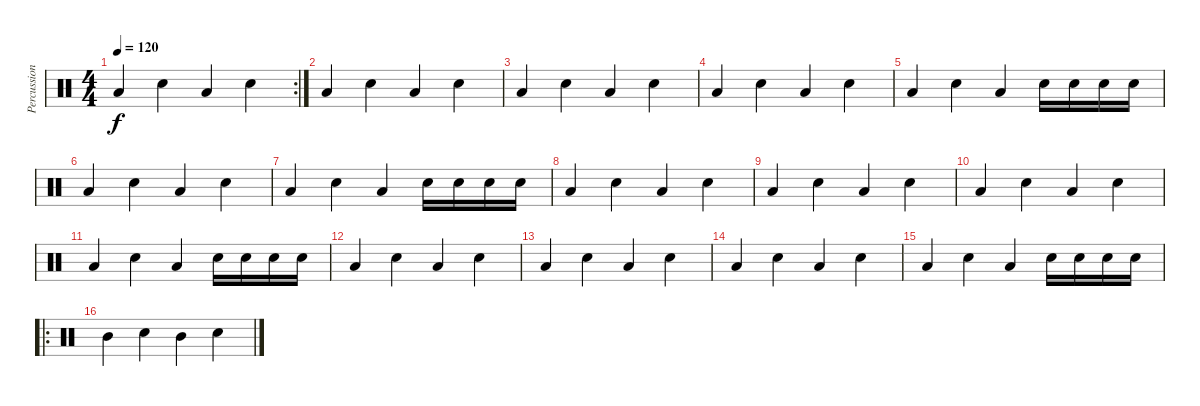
\track ("Percussion" "Percussion") {instrument percussion}
\staff {score}
\articulation defaults
\rc 2
\ts (4 4)
\tempo 120
\clef neutral
\ks c "Low Floor Tom (hit)".4{dy f} "Electric Snare (hit)".4 "Low Floor Tom (hit)".4 "Electric Snare (hit)".4
|
"Low Floor Tom (hit)".4 "Electric Snare (hit)".4 "Low Floor Tom (hit)".4 "Electric Snare (hit)".4 |
"Low Floor Tom (hit)".4 "Electric Snare (hit)".4 "Low Floor Tom (hit)".4 "Electric Snare (hit)".4 |
"Low Floor Tom (hit)".4 "Electric Snare (hit)".4 "Low Floor Tom (hit)".4 "Electric Snare (hit)".4 |
"Low Floor Tom (hit)".4 "Electric Snare (hit)".4 "Low Floor Tom (hit)".4 "Electric Snare (hit)".16 "Electric Snare (hit)".16 "Electric Snare (hit)".16 "Electric Snare (hit)".16 |
"Low Floor Tom (hit)".4 "Electric Snare (hit)".4 "Low Floor Tom (hit)".4 "Electric Snare (hit)".4 |
"Low Floor Tom (hit)".4 "Electric Snare (hit)".4 "Low Floor Tom (hit)".4 "Electric Snare (hit)".16 "Electric Snare (hit)".16 "Electric Snare (hit)".16 "Electric Snare (hit)".16 |
"Low Floor Tom (hit)".4 "Electric Snare (hit)".4 "Low Floor Tom (hit)".4 "Electric Snare (hit)".4 |
"Low Floor Tom (hit)".4 "Electric Snare (hit)".4 "Low Floor Tom (hit)".4 "Electric Snare (hit)".4 |
"Low Floor Tom (hit)".4 "Electric Snare (hit)".4 "Low Floor Tom (hit)".4 "Electric Snare (hit)".4 |
"Low Floor Tom (hit)".4 "Electric Snare (hit)".4 "Low Floor Tom (hit)".4 "Electric Snare (hit)".16 "Electric Snare (hit)".16 "Electric Snare (hit)".16 "Electric Snare (hit)".16 |
"Low Floor Tom (hit)".4 "Electric Snare (hit)".4 "Low Floor Tom (hit)".4 "Electric Snare (hit)".4 |
"Low Floor Tom (hit)".4 "Electric Snare (hit)".4 "Low Floor Tom (hit)".4 "Electric Snare (hit)".4 |
"Low Floor Tom (hit)".4 "Electric Snare (hit)".4 "Low Floor Tom (hit)".4 "Electric Snare (hit)".4 |
"Low Floor Tom (hit)".4 "Electric Snare (hit)".4 "Low Floor Tom (hit)".4 "Electric Snare (hit)".16 "Electric Snare (hit)".16 "Electric Snare (hit)".16 "Electric Snare (hit)".16 |
\ro "Mid Tom (hit)".4 "Electric Snare (hit)".4 "Mid Tom (hit)".4 "Electric Snare (hit)".4
